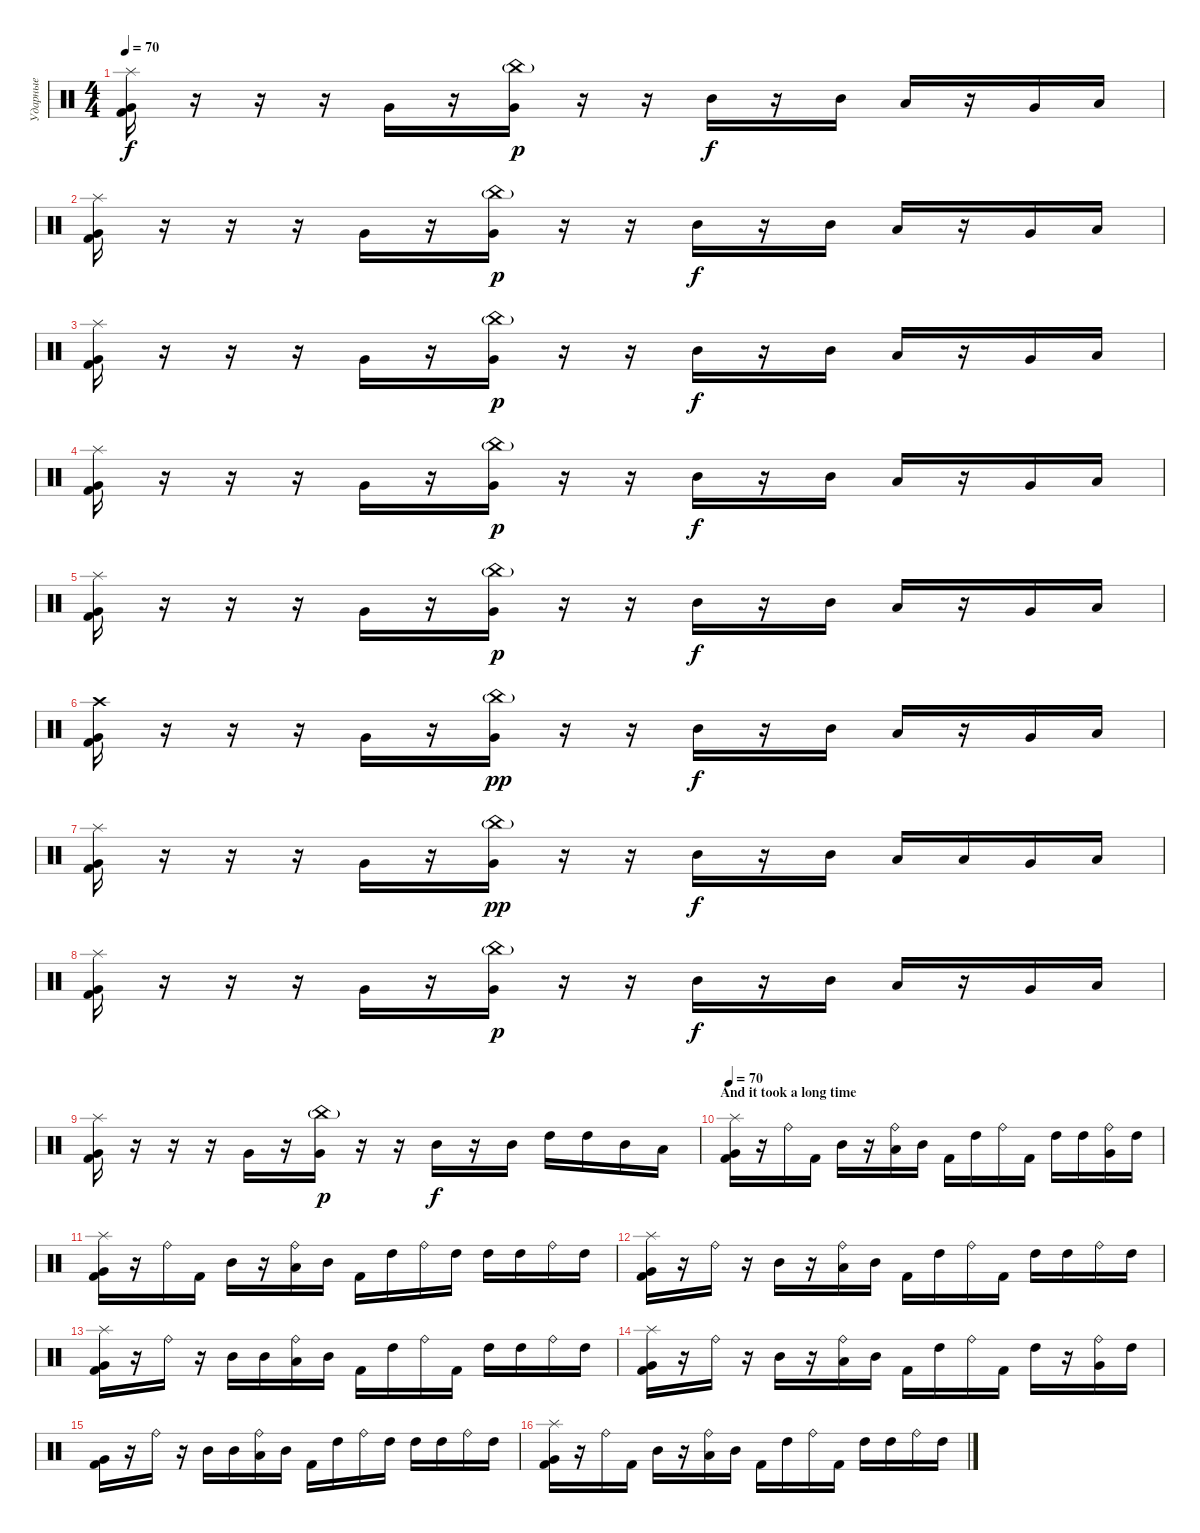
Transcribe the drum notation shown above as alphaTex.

\track ("Ударные" "Ударные") {instrument percussion}
\staff {score}
\articulation defaults
\ts (4 4)
\tempo 70
\clef neutral
\ks c
("Splash (hit)" "Very Low Tom (hit)" "Kick (hit) 2").16{dy f} r.16 r.16 r.16 "Very Low Tom (hit)".16 r.16 ("China (hit)"{g} "Very Low Tom (hit)").16{dy p} r.16 r.16 "Mid Tom (hit)".16{dy f} r.16 "Mid Tom (hit)".16 "Low Tom (hit)".16 r.16 "Very Low Tom (hit)".16 "Low Tom (hit)".16 |
("Splash (hit)" "Very Low Tom (hit)" "Kick (hit) 2").16 r.16 r.16 r.16 "Very Low Tom (hit)".16 r.16 ("China (hit)"{g} "Very Low Tom (hit)").16{dy p} r.16 r.16 "Mid Tom (hit)".16{dy f} r.16 "Mid Tom (hit)".16 "Low Tom (hit)".16 r.16 "Very Low Tom (hit)".16 "Low Tom (hit)".16 |
("Splash (hit)" "Very Low Tom (hit)" "Kick (hit) 2").16 r.16 r.16 r.16 "Very Low Tom (hit)".16 r.16 ("China (hit)"{g} "Very Low Tom (hit)").16{dy p} r.16 r.16 "Mid Tom (hit)".16{dy f} r.16 "Mid Tom (hit)".16 "Low Tom (hit)".16 r.16 "Very Low Tom (hit)".16 "Low Tom (hit)".16 |
("Splash (hit)" "Very Low Tom (hit)" "Kick (hit) 2").16 r.16 r.16 r.16 "Very Low Tom (hit)".16 r.16 ("China (hit)"{g} "Very Low Tom (hit)").16{dy p} r.16 r.16 "Mid Tom (hit)".16{dy f} r.16 "Mid Tom (hit)".16 "Low Tom (hit)".16 r.16 "Very Low Tom (hit)".16 "Low Tom (hit)".16 |
("Splash (hit)" "Very Low Tom (hit)" "Kick (hit) 2").16 r.16 r.16 r.16 "Very Low Tom (hit)".16 r.16 ("China (hit)"{g} "Very Low Tom (hit)").16{dy p} r.16 r.16 "Mid Tom (hit)".16{dy f} r.16 "Mid Tom (hit)".16 "Low Tom (hit)".16 r.16 "Very Low Tom (hit)".16 "Low Tom (hit)".16 |
("Crash high (hit)" "Very Low Tom (hit)" "Kick (hit) 2").16 r.16 r.16 r.16 "Very Low Tom (hit)".16 r.16 ("China (hit)"{g} "Very Low Tom (hit)").16{dy pp} r.16 r.16 "Mid Tom (hit)".16{dy f} r.16 "Mid Tom (hit)".16 "Low Tom (hit)".16 r.16 "Very Low Tom (hit)".16 "Low Tom (hit)".16 |
("Splash (hit)" "Very Low Tom (hit)" "Kick (hit) 2").16 r.16 r.16 r.16 "Very Low Tom (hit)".16 r.16 ("China (hit)"{g} "Very Low Tom (hit)").16{dy pp} r.16 r.16 "Mid Tom (hit)".16{dy f} r.16 "Mid Tom (hit)".16 "Low Tom (hit)".16 "Low Tom (hit)".16 "Very Low Tom (hit)".16 "Low Tom (hit)".16 |
("Splash (hit)" "Very Low Tom (hit)" "Kick (hit) 2").16 r.16 r.16 r.16 "Very Low Tom (hit)".16 r.16 ("China (hit)"{g} "Very Low Tom (hit)").16{dy p} r.16 r.16 "Mid Tom (hit)".16{dy f} r.16 "Mid Tom (hit)".16 "Low Tom (hit)".16 r.16 "Very Low Tom (hit)".16 "Low Tom (hit)".16 |
("Splash (hit)" "Very Low Tom (hit)" "Kick (hit) 2").16 r.16 r.16 r.16 "Very Low Tom (hit)".16 r.16 ("China (hit)"{g} "Very Low Tom (hit)").16{dy p} r.16 r.16 "Mid Tom (hit)".16{dy f} r.16 "Mid Tom (hit)".16 "High Tom (hit)".16 "High Tom (hit)".16 "Mid Tom (hit)".16 "Low Tom (hit)".16 |
\section ("" "And it took a long time")
\tempo 70
("Splash (hit)" "Very Low Tom (hit)" "Kick (hit) 2").16 r.16 "Ride (bell)".16 "Kick (hit) 2".16 "Mid Tom (hit)".16 r.16 ("Ride (bell)" "Low Tom (hit)").16 "Mid Tom (hit)".16 "Kick (hit) 2".16 "High Tom (hit)".16 "Ride (bell)".16 "Kick (hit) 2".16 "High Tom (hit)".16 "High Tom (hit)".16 ("Ride (bell)" "Very Low Tom (hit)").16 "High Tom (hit)".16 |
("Splash (hit)" "Very Low Tom (hit)" "Kick (hit) 2").16 r.16 "Ride (bell)".16 "Kick (hit) 2".16 "Mid Tom (hit)".16 r.16 ("Ride (bell)" "Low Tom (hit)").16 "Mid Tom (hit)".16 "Kick (hit) 2".16 "High Tom (hit)".16 "Ride (bell)".16 "High Tom (hit)".16 "High Tom (hit)".16 "High Tom (hit)".16 "Ride (bell)".16 "High Tom (hit)".16 |
("Splash (hit)" "Very Low Tom (hit)" "Kick (hit) 2").16 r.16 "Ride (bell)".16 r.16 "Mid Tom (hit)".16 r.16 ("Ride (bell)" "Low Tom (hit)").16 "Mid Tom (hit)".16 "Kick (hit) 2".16 "High Tom (hit)".16 "Ride (bell)".16 "Kick (hit) 2".16 "High Tom (hit)".16 "High Tom (hit)".16 "Ride (bell)".16 "High Tom (hit)".16 |
("Splash (hit)" "Very Low Tom (hit)" "Kick (hit) 2").16 r.16 "Ride (bell)".16 r.16 "Mid Tom (hit)".16 "Mid Tom (hit)".16 ("Ride (bell)" "Low Tom (hit)").16 "Mid Tom (hit)".16 "Kick (hit) 2".16 "High Tom (hit)".16 "Ride (bell)".16 "Kick (hit) 2".16 "High Tom (hit)".16 "High Tom (hit)".16 "Ride (bell)".16 "High Tom (hit)".16 |
("Splash (hit)" "Very Low Tom (hit)" "Kick (hit) 2").16 r.16 "Ride (bell)".16 r.16 "Mid Tom (hit)".16 r.16 ("Ride (bell)" "Low Tom (hit)").16 "Mid Tom (hit)".16 "Kick (hit) 2".16 "High Tom (hit)".16 "Ride (bell)".16 "Kick (hit) 2".16 "High Tom (hit)".16 r.16 ("Ride (bell)" "Very Low Tom (hit)").16 "High Tom (hit)".16 |
("Very Low Tom (hit)" "Kick (hit) 2").16 r.16 "Ride (bell)".16 r.16 "Mid Tom (hit)".16 "Mid Tom (hit)".16 ("Ride (bell)" "Low Tom (hit)").16 "Mid Tom (hit)".16 "Kick (hit) 2".16 "High Tom (hit)".16 "Ride (bell)".16 "High Tom (hit)".16 "High Tom (hit)".16 "High Tom (hit)".16 "Ride (bell)".16 "High Tom (hit)".16 |
("Splash (hit)" "Very Low Tom (hit)" "Kick (hit) 2").16 r.16 "Ride (bell)".16 "Kick (hit) 2".16 "Mid Tom (hit)".16 r.16 ("Ride (bell)" "Low Tom (hit)").16 "Mid Tom (hit)".16 "Kick (hit) 2".16 "High Tom (hit)".16 "Ride (bell)".16 "Kick (hit) 2".16 "High Tom (hit)".16 "High Tom (hit)".16 "Ride (bell)".16 "High Tom (hit)".16
